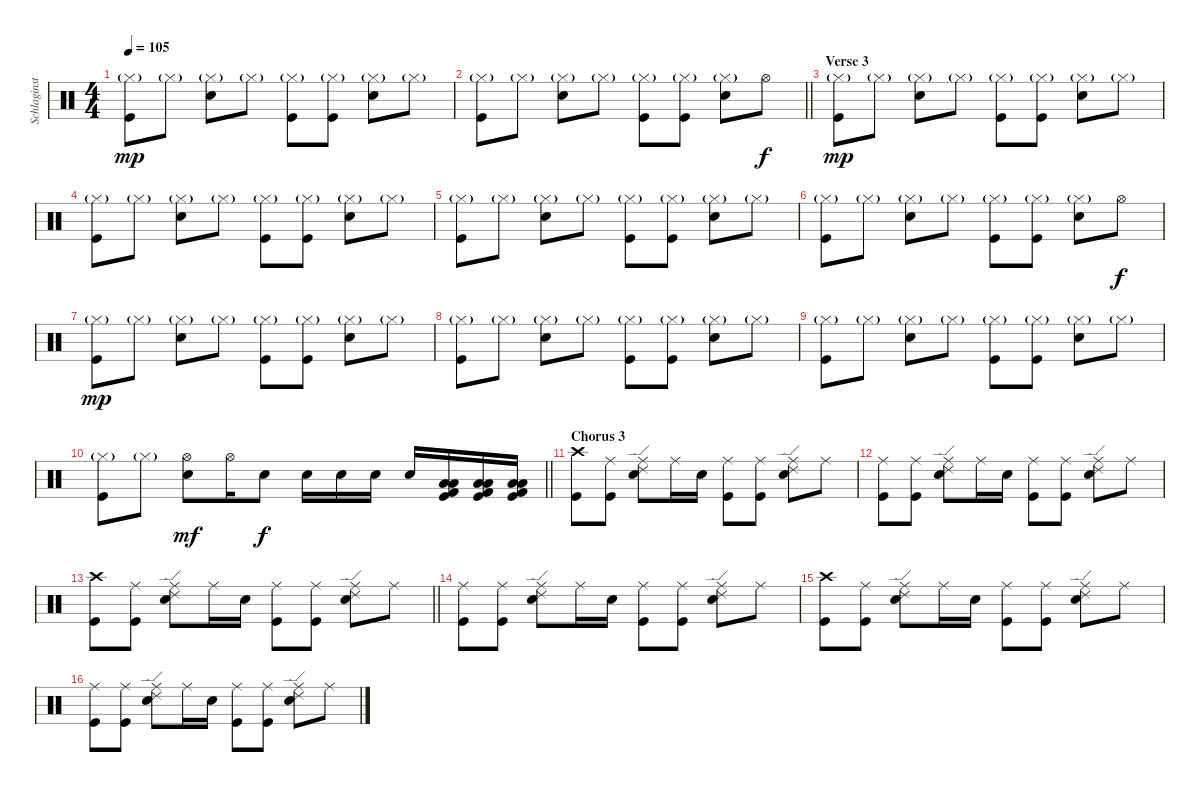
\track ("Schlaginstrumente - Auswahl" "Schlaginst") {instrument percussion}
\staff {score}
\articulation defaults
\ts (4 4)
\tempo 105
\clef neutral
\ks c
("Hi-Hat (closed)"{g} "Kick (hit)").8{dy mp} "Hi-Hat (closed)"{g}.8 ("Hi-Hat (closed)"{g} "Snare (hit) 2").8 "Hi-Hat (closed)"{g}.8 ("Hi-Hat (closed)"{g} "Kick (hit)").8 ("Hi-Hat (closed)"{g} "Kick (hit)").8 ("Hi-Hat (closed)"{g} "Snare (hit) 2").8 "Hi-Hat (closed)"{g}.8 |
\barLineRight lightlight
("Hi-Hat (closed)"{g} "Kick (hit)").8 "Hi-Hat (closed)"{g}.8 ("Hi-Hat (closed)"{g} "Snare (hit) 2").8 "Hi-Hat (closed)"{g}.8 ("Hi-Hat (closed)"{g} "Kick (hit)").8 ("Hi-Hat (closed)"{g} "Kick (hit)").8 ("Hi-Hat (closed)"{g} "Snare (hit) 2").8 "Hi-Hat (open)".8{dy f} |
\section ("" "Verse 3")
("Hi-Hat (closed)"{g} "Kick (hit)").8{dy mp} "Hi-Hat (closed)"{g}.8 ("Hi-Hat (closed)"{g} "Snare (hit) 2").8 "Hi-Hat (closed)"{g}.8 ("Hi-Hat (closed)"{g} "Kick (hit)").8 ("Hi-Hat (closed)"{g} "Kick (hit)").8 ("Hi-Hat (closed)"{g} "Snare (hit) 2").8 "Hi-Hat (closed)"{g}.8 |
("Hi-Hat (closed)"{g} "Kick (hit)").8 "Hi-Hat (closed)"{g}.8 ("Hi-Hat (closed)"{g} "Snare (hit) 2").8 "Hi-Hat (closed)"{g}.8 ("Hi-Hat (closed)"{g} "Kick (hit)").8 ("Hi-Hat (closed)"{g} "Kick (hit)").8 ("Hi-Hat (closed)"{g} "Snare (hit) 2").8 "Hi-Hat (closed)"{g}.8 |
("Hi-Hat (closed)"{g} "Kick (hit)").8 "Hi-Hat (closed)"{g}.8 ("Hi-Hat (closed)"{g} "Snare (hit) 2").8 "Hi-Hat (closed)"{g}.8 ("Hi-Hat (closed)"{g} "Kick (hit)").8 ("Hi-Hat (closed)"{g} "Kick (hit)").8 ("Hi-Hat (closed)"{g} "Snare (hit) 2").8 "Hi-Hat (closed)"{g}.8 |
("Hi-Hat (closed)"{g} "Kick (hit)").8 "Hi-Hat (closed)"{g}.8 ("Hi-Hat (closed)"{g} "Snare (hit) 2").8 "Hi-Hat (closed)"{g}.8 ("Hi-Hat (closed)"{g} "Kick (hit)").8 ("Hi-Hat (closed)"{g} "Kick (hit)").8 ("Hi-Hat (closed)"{g} "Snare (hit) 2").8 "Hi-Hat (open)".8{dy f} |
("Hi-Hat (closed)"{g} "Kick (hit)").8{dy mp} "Hi-Hat (closed)"{g}.8 ("Hi-Hat (closed)"{g} "Snare (hit) 2").8 "Hi-Hat (closed)"{g}.8 ("Hi-Hat (closed)"{g} "Kick (hit)").8 ("Hi-Hat (closed)"{g} "Kick (hit)").8 ("Hi-Hat (closed)"{g} "Snare (hit) 2").8 "Hi-Hat (closed)"{g}.8 |
("Hi-Hat (closed)"{g} "Kick (hit)").8 "Hi-Hat (closed)"{g}.8 ("Hi-Hat (closed)"{g} "Snare (hit) 2").8 "Hi-Hat (closed)"{g}.8 ("Hi-Hat (closed)"{g} "Kick (hit)").8 ("Hi-Hat (closed)"{g} "Kick (hit)").8 ("Hi-Hat (closed)"{g} "Snare (hit) 2").8 "Hi-Hat (closed)"{g}.8 |
("Hi-Hat (closed)"{g} "Kick (hit)").8 "Hi-Hat (closed)"{g}.8 ("Hi-Hat (closed)"{g} "Snare (hit) 2").8 "Hi-Hat (closed)"{g}.8 ("Hi-Hat (closed)"{g} "Kick (hit)").8 ("Hi-Hat (closed)"{g} "Kick (hit)").8 ("Hi-Hat (closed)"{g} "Snare (hit) 2").8 "Hi-Hat (closed)"{g}.8 |
\barLineRight lightlight
("Hi-Hat (closed)"{g} "Kick (hit)").8 "Hi-Hat (closed)"{g}.8 ("Hi-Hat (open)" "Snare (hit) 2").8{dy mf} "Hi-Hat (open)".16 "Snare (hit) 2".8{dy f} "Snare (hit) 2".16 "Snare (hit) 2".16 "Snare (hit) 2".16 "Snare (hit) 2".16 ("Low Tom (hit)" "Low Floor Tom (hit)" "Kick (hit)" "Kick (hit) 2").16 ("Low Tom (hit)" "Low Floor Tom (hit)" "Kick (hit)" "Kick (hit) 2").16 ("Low Tom (hit)" "Low Floor Tom (hit)" "Kick (hit)" "Kick (hit) 2").16 |
\section ("" "Chorus 3")
("Crash high (hit)" "Kick (hit)").8 ("Ride (middle)" "Kick (hit)").8 ("Ride (middle)" "Ride (edge) 2" "Snare (hit) 2").8 "Ride (middle)".16 "Snare (hit) 2".16 ("Ride (middle)" "Kick (hit)").8 ("Ride (middle)" "Kick (hit)").8 ("Ride (middle)" "Ride (edge) 2" "Snare (hit) 2").8 "Ride (middle)".8 |
("Ride (middle)" "Kick (hit)").8 ("Ride (middle)" "Kick (hit)").8 ("Ride (middle)" "Ride (edge) 2" "Snare (hit) 2").8 "Ride (middle)".16 "Snare (hit) 2".16 ("Ride (middle)" "Kick (hit)").8 ("Ride (middle)" "Kick (hit)").8 ("Ride (middle)" "Ride (edge) 2" "Snare (hit) 2").8 "Ride (middle)".8 |
\barLineRight lightlight
("Crash high (hit)" "Kick (hit)").8 ("Ride (middle)" "Kick (hit)").8 ("Ride (middle)" "Ride (edge) 2" "Snare (hit) 2").8 "Ride (middle)".16 "Snare (hit) 2".16 ("Ride (middle)" "Kick (hit)").8 ("Ride (middle)" "Kick (hit)").8 ("Ride (middle)" "Ride (edge) 2" "Snare (hit) 2").8 "Ride (middle)".8 |
("Ride (middle)" "Kick (hit)").8 ("Ride (middle)" "Kick (hit)").8 ("Ride (middle)" "Ride (edge) 2" "Snare (hit) 2").8 "Ride (middle)".16 "Snare (hit) 2".16 ("Ride (middle)" "Kick (hit)").8 ("Ride (middle)" "Kick (hit)").8 ("Ride (middle)" "Ride (edge) 2" "Snare (hit) 2").8 "Ride (middle)".8 |
("Crash high (hit)" "Kick (hit)").8 ("Ride (middle)" "Kick (hit)").8 ("Ride (middle)" "Ride (edge) 2" "Snare (hit) 2").8 "Ride (middle)".16 "Snare (hit) 2".16 ("Ride (middle)" "Kick (hit)").8 ("Ride (middle)" "Kick (hit)").8 ("Ride (middle)" "Ride (edge) 2" "Snare (hit) 2").8 "Ride (middle)".8 |
("Ride (middle)" "Kick (hit)").8 ("Ride (middle)" "Kick (hit)").8 ("Ride (middle)" "Ride (edge) 2" "Snare (hit) 2").8 "Ride (middle)".16 "Snare (hit) 2".16 ("Ride (middle)" "Kick (hit)").8 ("Ride (middle)" "Kick (hit)").8 ("Ride (middle)" "Ride (edge) 2" "Snare (hit) 2").8 "Ride (middle)".8
